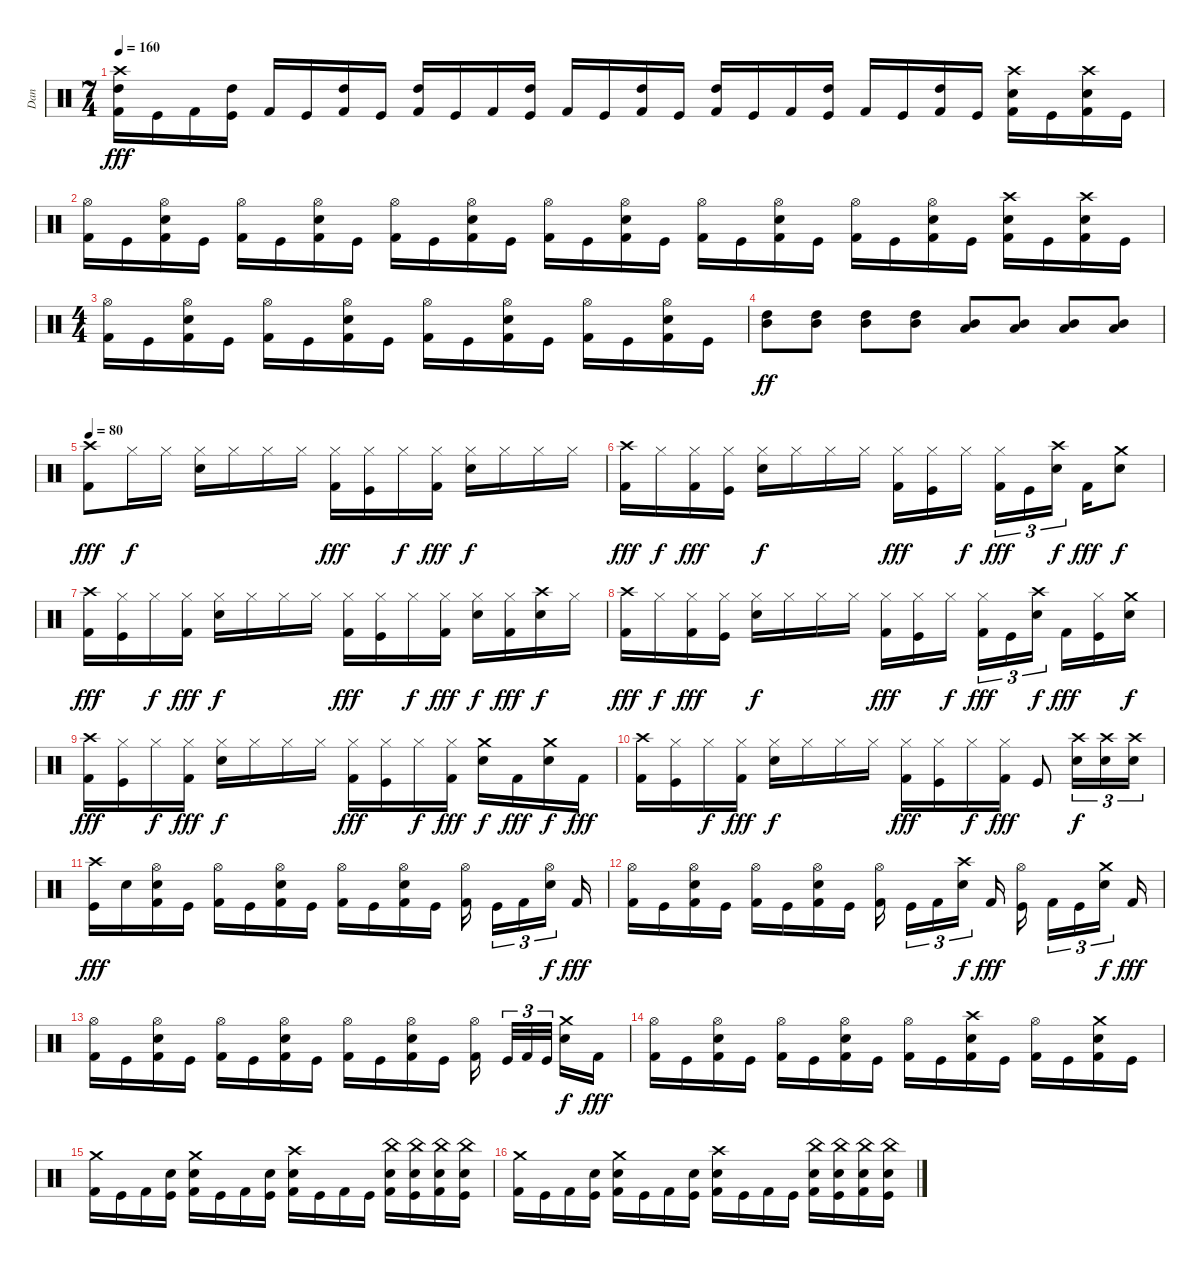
\track ("Dan " "Dan ") {instrument percussion}
\staff {score}
\articulation defaults
\ts (7 4)
\tempo 160
\clef neutral
\ks c
("Crash high (hit)" "High Tom (hit)" "Kick (hit) 2").16{dy fff} "Kick (hit)".16 "Kick (hit) 2".16 ("High Tom (hit)" "Kick (hit)").16 "Kick (hit) 2".16 "Kick (hit)".16 ("High Tom (hit)" "Kick (hit) 2").16 "Kick (hit)".16 ("High Tom (hit)" "Kick (hit) 2").16 "Kick (hit)".16 "Kick (hit) 2".16 ("High Tom (hit)" "Kick (hit)").16 "Kick (hit) 2".16 "Kick (hit)".16 ("High Tom (hit)" "Kick (hit) 2").16 "Kick (hit)".16 ("High Tom (hit)" "Kick (hit) 2").16 "Kick (hit)".16 "Kick (hit) 2".16 ("High Tom (hit)" "Kick (hit)").16 "Kick (hit) 2".16 "Kick (hit)".16 ("High Tom (hit)" "Kick (hit) 2").16 "Kick (hit)".16 ("Crash high (hit)" "Electric Snare (hit)" "Kick (hit) 2").16 "Kick (hit)".16 ("Crash high (hit)" "Electric Snare (hit)" "Kick (hit) 2").16 "Kick (hit)".16 |
("Hi-Hat (open)" "Kick (hit) 2").16 "Kick (hit)".16 ("Hi-Hat (open)" "Electric Snare (hit)" "Kick (hit) 2").16 "Kick (hit)".16 ("Hi-Hat (open)" "Kick (hit) 2").16 "Kick (hit)".16 ("Hi-Hat (open)" "Electric Snare (hit)" "Kick (hit) 2").16 "Kick (hit)".16 ("Hi-Hat (open)" "Kick (hit) 2").16 "Kick (hit)".16 ("Hi-Hat (open)" "Electric Snare (hit)" "Kick (hit) 2").16 "Kick (hit)".16 ("Hi-Hat (open)" "Kick (hit) 2").16 "Kick (hit)".16 ("Hi-Hat (open)" "Electric Snare (hit)" "Kick (hit) 2").16 "Kick (hit)".16 ("Hi-Hat (open)" "Kick (hit) 2").16 "Kick (hit)".16 ("Hi-Hat (open)" "Electric Snare (hit)" "Kick (hit) 2").16 "Kick (hit)".16 ("Hi-Hat (open)" "Kick (hit) 2").16 "Kick (hit)".16 ("Hi-Hat (open)" "Electric Snare (hit)" "Kick (hit) 2").16 "Kick (hit)".16 ("Crash high (hit)" "Electric Snare (hit)" "Kick (hit) 2").16 "Kick (hit)".16 ("Crash high (hit)" "Electric Snare (hit)" "Kick (hit) 2").16 "Kick (hit)".16 |
\ts (4 4)
("Hi-Hat (open)" "Kick (hit) 2").16 "Kick (hit)".16 ("Hi-Hat (open)" "Electric Snare (hit)" "Kick (hit) 2").16 "Kick (hit)".16 ("Hi-Hat (open)" "Kick (hit) 2").16 "Kick (hit)".16 ("Hi-Hat (open)" "Electric Snare (hit)" "Kick (hit) 2").16 "Kick (hit)".16 ("Hi-Hat (open)" "Kick (hit) 2").16 "Kick (hit)".16 ("Hi-Hat (open)" "Electric Snare (hit)" "Kick (hit) 2").16 "Kick (hit)".16 ("Hi-Hat (open)" "Kick (hit) 2").16 "Kick (hit)".16 ("Hi-Hat (open)" "Electric Snare (hit)" "Kick (hit) 2").16 "Kick (hit)".16 |
("Mid Tom (hit)" "High Tom (hit)").8{dy ff} ("Mid Tom (hit)" "High Tom (hit)").8 ("Mid Tom (hit)" "High Tom (hit)").8 ("Mid Tom (hit)" "High Tom (hit)").8 ("Low Tom (hit)" "Mid Tom (hit)").8 ("Low Tom (hit)" "Mid Tom (hit)").8 ("Low Tom (hit)" "Mid Tom (hit)").8 ("Low Tom (hit)" "Mid Tom (hit)").8 |
\tempo 80
("Crash high (hit)" "Kick (hit) 2").8{dy fff} "Hi-Hat (closed)".16{dy f} "Hi-Hat (closed)".16 ("Hi-Hat (closed)" "Electric Snare (hit)").16 "Hi-Hat (closed)".16 "Hi-Hat (closed)".16 "Hi-Hat (closed)".16 ("Hi-Hat (closed)" "Kick (hit) 2").16{dy fff} ("Hi-Hat (closed)" "Kick (hit)").16 "Hi-Hat (closed)".16{dy f} ("Hi-Hat (closed)" "Kick (hit) 2").16{dy fff} ("Hi-Hat (closed)" "Electric Snare (hit)").16{dy f} "Hi-Hat (closed)".16 "Hi-Hat (closed)".16 "Hi-Hat (closed)".16 |
("Crash high (hit)" "Kick (hit) 2").16{dy fff} "Hi-Hat (closed)".16{dy f} ("Hi-Hat (closed)" "Kick (hit) 2").16{dy fff} ("Hi-Hat (closed)" "Kick (hit)").16 ("Hi-Hat (closed)" "Electric Snare (hit)").16{dy f} "Hi-Hat (closed)".16 "Hi-Hat (closed)".16 "Hi-Hat (closed)".16 ("Hi-Hat (closed)" "Kick (hit) 2").16{dy fff} ("Hi-Hat (closed)" "Kick (hit)").16 "Hi-Hat (closed)".16{dy f} ("Hi-Hat (closed)" "Kick (hit) 2").16{tu (3 2) dy fff} "Kick (hit)".16{tu (3 2)} ("Crash high (hit)" "Electric Snare (hit)").16{tu (3 2) dy f} "Kick (hit) 2".16{dy fff} ("Crash medium (hit)" "Electric Snare (hit)").8{dy f} |
("Crash high (hit)" "Kick (hit) 2").16{dy fff} ("Hi-Hat (closed)" "Kick (hit)").16 "Hi-Hat (closed)".16{dy f} ("Hi-Hat (closed)" "Kick (hit) 2").16{dy fff} ("Hi-Hat (closed)" "Electric Snare (hit)").16{dy f} "Hi-Hat (closed)".16 "Hi-Hat (closed)".16 "Hi-Hat (closed)".16 ("Hi-Hat (closed)" "Kick (hit) 2").16{dy fff} ("Hi-Hat (closed)" "Kick (hit)").16 "Hi-Hat (closed)".16{dy f} ("Hi-Hat (closed)" "Kick (hit) 2").16{dy fff} ("Hi-Hat (closed)" "Electric Snare (hit)").16{dy f} ("Hi-Hat (closed)" "Kick (hit) 2").16{dy fff} ("Crash high (hit)" "Electric Snare (hit)").16{dy f} "Hi-Hat (closed)".16 |
("Crash high (hit)" "Kick (hit) 2").16{dy fff} "Hi-Hat (closed)".16{dy f} ("Hi-Hat (closed)" "Kick (hit) 2").16{dy fff} ("Hi-Hat (closed)" "Kick (hit)").16 ("Hi-Hat (closed)" "Electric Snare (hit)").16{dy f} "Hi-Hat (closed)".16 "Hi-Hat (closed)".16 "Hi-Hat (closed)".16 ("Hi-Hat (closed)" "Kick (hit) 2").16{dy fff} ("Hi-Hat (closed)" "Kick (hit)").16 "Hi-Hat (closed)".16{dy f} ("Hi-Hat (closed)" "Kick (hit) 2").16{tu (3 2) dy fff} "Kick (hit)".16{tu (3 2)} ("Crash high (hit)" "Electric Snare (hit)").16{tu (3 2) dy f} "Kick (hit) 2".16{dy fff} ("Hi-Hat (closed)" "Kick (hit)").16 ("Crash medium (hit)" "Electric Snare (hit)").16{dy f} |
("Crash high (hit)" "Kick (hit) 2").16{dy fff} ("Hi-Hat (closed)" "Kick (hit)").16 "Hi-Hat (closed)".16{dy f} ("Hi-Hat (closed)" "Kick (hit) 2").16{dy fff} ("Hi-Hat (closed)" "Electric Snare (hit)").16{dy f} "Hi-Hat (closed)".16 "Hi-Hat (closed)".16 "Hi-Hat (closed)".16 ("Hi-Hat (closed)" "Kick (hit) 2").16{dy fff} ("Hi-Hat (closed)" "Kick (hit)").16 "Hi-Hat (closed)".16{dy f} ("Hi-Hat (closed)" "Kick (hit) 2").16{dy fff} ("Crash medium (hit)" "Electric Snare (hit)").16{dy f} "Kick (hit) 2".16{dy fff} ("Crash medium (hit)" "Electric Snare (hit)").16{dy f} "Kick (hit) 2".16{dy fff} |
("Crash high (hit)" "Kick (hit) 2").16 ("Hi-Hat (closed)" "Kick (hit)").16 "Hi-Hat (closed)".16{dy f} ("Hi-Hat (closed)" "Kick (hit) 2").16{dy fff} ("Hi-Hat (closed)" "Electric Snare (hit)").16{dy f} "Hi-Hat (closed)".16 "Hi-Hat (closed)".16 "Hi-Hat (closed)".16 ("Hi-Hat (closed)" "Kick (hit) 2").16{dy fff} ("Hi-Hat (closed)" "Kick (hit)").16 "Hi-Hat (closed)".16{dy f} ("Hi-Hat (closed)" "Kick (hit) 2").16{dy fff} "Kick (hit)".8 ("Crash high (hit)" "Electric Snare (hit)").16{tu (3 2) dy f} ("Crash high (hit)" "Electric Snare (hit)").16{tu (3 2)} ("Crash high (hit)" "Electric Snare (hit)").16{tu (3 2)} |
("Crash high (hit)" "Kick (hit)").16{dy fff} "Metronome (bell)".16 ("Hi-Hat (open)" "Electric Snare (hit)" "Kick (hit) 2").16 "Kick (hit)".16 ("Hi-Hat (open)" "Kick (hit) 2").16 "Kick (hit)".16 ("Hi-Hat (open)" "Electric Snare (hit)" "Kick (hit) 2").16 "Kick (hit)".16 ("Hi-Hat (open)" "Kick (hit) 2").16 "Kick (hit)".16 ("Hi-Hat (open)" "Electric Snare (hit)" "Kick (hit) 2").16 "Kick (hit)".16 ("Hi-Hat (open)" "Kick (hit) 2").16 "Kick (hit)".16{tu (3 2)} "Kick (hit) 2".16{tu (3 2)} ("Hi-Hat (open)" "Electric Snare (hit)").16{tu (3 2) dy f} "Kick (hit) 2".16{dy fff} |
("Hi-Hat (open)" "Kick (hit) 2").16 "Kick (hit)".16 ("Hi-Hat (open)" "Electric Snare (hit)" "Kick (hit) 2").16 "Kick (hit)".16 ("Hi-Hat (open)" "Kick (hit) 2").16 "Kick (hit)".16 ("Hi-Hat (open)" "Electric Snare (hit)" "Kick (hit) 2").16 "Kick (hit)".16 ("Hi-Hat (open)" "Kick (hit) 2").16 "Kick (hit)".16{tu (3 2)} "Kick (hit) 2".16{tu (3 2)} ("Crash high (hit)" "Electric Snare (hit)").16{tu (3 2) dy f} "Kick (hit) 2".16{dy fff} ("Hi-Hat (open)" "Kick (hit)").16 "Kick (hit) 2".16{tu (3 2)} "Kick (hit)".16{tu (3 2)} ("Crash medium (hit)" "Electric Snare (hit)").16{tu (3 2) dy f} "Kick (hit) 2".16{dy fff} |
("Hi-Hat (open)" "Kick (hit) 2").16 "Kick (hit)".16 ("Hi-Hat (open)" "Electric Snare (hit)" "Kick (hit) 2").16 "Kick (hit)".16 ("Hi-Hat (open)" "Kick (hit) 2").16 "Kick (hit)".16 ("Hi-Hat (open)" "Electric Snare (hit)" "Kick (hit) 2").16 "Kick (hit)".16 ("Hi-Hat (open)" "Kick (hit) 2").16 "Kick (hit)".16 ("Hi-Hat (open)" "Electric Snare (hit)" "Kick (hit) 2").16 "Kick (hit)".16 ("Hi-Hat (open)" "Kick (hit) 2").16 "Kick (hit)".32{tu (3 2)} "Kick (hit) 2".32{tu (3 2)} "Kick (hit)".32{tu (3 2)} ("Crash medium (hit)" "Electric Snare (hit)").16{dy f} "Kick (hit) 2".16{dy fff} |
("Hi-Hat (open)" "Kick (hit) 2").16 "Kick (hit)".16 ("Hi-Hat (open)" "Electric Snare (hit)" "Kick (hit) 2").16 "Kick (hit)".16 ("Hi-Hat (open)" "Kick (hit) 2").16 "Kick (hit)".16 ("Hi-Hat (open)" "Electric Snare (hit)" "Kick (hit) 2").16 "Kick (hit)".16 ("Hi-Hat (open)" "Kick (hit) 2").16 "Kick (hit)".16 ("Crash high (hit)" "Electric Snare (hit)" "Kick (hit) 2").16 "Kick (hit)".16 ("Hi-Hat (open)" "Kick (hit) 2").16 "Kick (hit)".16 ("Crash medium (hit)" "Electric Snare (hit)" "Kick (hit) 2").16 "Kick (hit)".16 |
("Crash medium (hit)" "Kick (hit) 2").16 "Kick (hit)".16 "Kick (hit) 2".16 ("Electric Snare (hit)" "Kick (hit)").16 ("Crash medium (hit)" "Electric Snare (hit)" "Kick (hit) 2").16 "Kick (hit)".16 "Kick (hit) 2".16 ("Electric Snare (hit)" "Kick (hit)").16 ("Crash high (hit)" "Electric Snare (hit)" "Kick (hit) 2").16 "Kick (hit)".16 "Kick (hit) 2".16 "Kick (hit)".16 ("China (hit)" "Electric Snare (hit)" "Kick (hit) 2").16 ("China (hit)" "Electric Snare (hit)" "Kick (hit)").16 ("China (hit)" "Electric Snare (hit)" "Kick (hit) 2").16 ("China (hit)" "Electric Snare (hit)" "Kick (hit)").16 |
("Crash medium (hit)" "Kick (hit) 2").16 "Kick (hit)".16 "Kick (hit) 2".16 ("Electric Snare (hit)" "Kick (hit)").16 ("Crash medium (hit)" "Electric Snare (hit)" "Kick (hit) 2").16 "Kick (hit)".16 "Kick (hit) 2".16 ("Electric Snare (hit)" "Kick (hit)").16 ("Crash high (hit)" "Electric Snare (hit)" "Kick (hit) 2").16 "Kick (hit)".16 "Kick (hit) 2".16 "Kick (hit)".16 ("China (hit)" "Electric Snare (hit)" "Kick (hit) 2").16 ("China (hit)" "Electric Snare (hit)" "Kick (hit)").16 ("China (hit)" "Electric Snare (hit)" "Kick (hit) 2").16 ("China (hit)" "Electric Snare (hit)" "Kick (hit)").16
